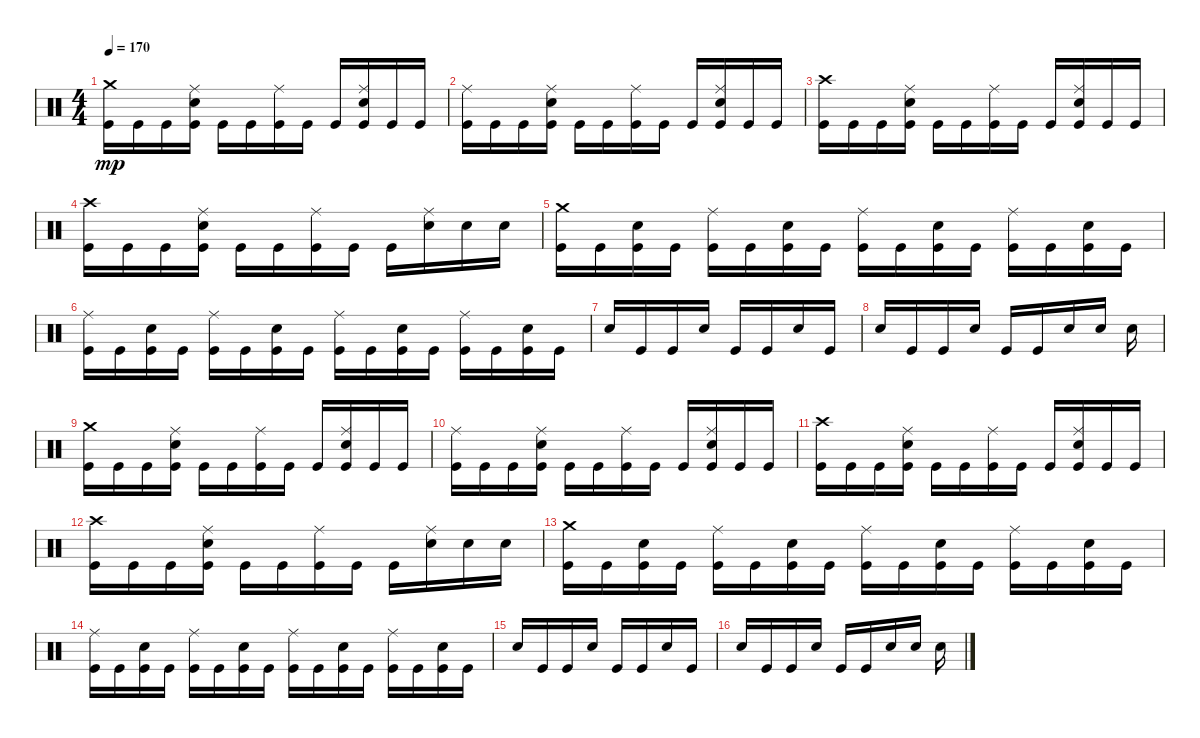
\track "" {instrument percussion}
\staff {score}
\articulation defaults
\ts (4 4)
\tempo 170
\clef neutral
\ks c
("Crash medium (hit)" "Kick (hit)").16{dy mp} "Kick (hit)".16 "Kick (hit)".16 ("Ride (middle)" "Snare (hit) 2" "Kick (hit)").16 "Kick (hit)".16 "Kick (hit)".16 ("Ride (middle)" "Kick (hit)").16 "Kick (hit)".16 "Kick (hit)".16 ("Ride (middle)" "Snare (hit) 2" "Kick (hit)").16 "Kick (hit)".16 "Kick (hit)".16 |
("Ride (middle)" "Kick (hit)").16 "Kick (hit)".16 "Kick (hit)".16 ("Ride (middle)" "Snare (hit) 2" "Kick (hit)").16 "Kick (hit)".16 "Kick (hit)".16 ("Ride (middle)" "Kick (hit)").16 "Kick (hit)".16 "Kick (hit)".16 ("Ride (middle)" "Snare (hit) 2" "Kick (hit)").16 "Kick (hit)".16 "Kick (hit)".16 |
("Crash high (hit)" "Kick (hit)").16 "Kick (hit)".16 "Kick (hit)".16 ("Ride (middle)" "Snare (hit) 2" "Kick (hit)").16 "Kick (hit)".16 "Kick (hit)".16 ("Ride (middle)" "Kick (hit)").16 "Kick (hit)".16 "Kick (hit)".16 ("Ride (middle)" "Snare (hit) 2" "Kick (hit)").16 "Kick (hit)".16 "Kick (hit)".16 |
("Crash high (hit)" "Kick (hit)").16 "Kick (hit)".16 "Kick (hit)".16 ("Snare (hit) 2" "Ride (middle)" "Kick (hit)").16 "Kick (hit)".16 "Kick (hit)".16 ("Ride (middle)" "Kick (hit)").16 "Kick (hit)".16 "Kick (hit)".16 ("Ride (middle)" "Snare (hit) 2").16 "Snare (hit) 2".16 "Snare (hit) 2".16 |
("Crash medium (hit)" "Kick (hit)").16 "Kick (hit)".16 ("Kick (hit)" "Snare (hit) 2").16 "Kick (hit)".16 ("Ride (middle)" "Kick (hit)").16 "Kick (hit)".16 ("Kick (hit)" "Snare (hit) 2").16 "Kick (hit)".16 ("Ride (middle)" "Kick (hit)").16 "Kick (hit)".16 ("Kick (hit)" "Snare (hit) 2").16 "Kick (hit)".16 ("Ride (middle)" "Kick (hit)").16 "Kick (hit)".16 ("Kick (hit)" "Snare (hit) 2").16 "Kick (hit)".16 |
("Ride (middle)" "Kick (hit)").16 "Kick (hit)".16 ("Kick (hit)" "Snare (hit) 2").16 "Kick (hit)".16 ("Ride (middle)" "Kick (hit)").16 "Kick (hit)".16 ("Kick (hit)" "Snare (hit) 2").16 "Kick (hit)".16 ("Ride (middle)" "Kick (hit)").16 "Kick (hit)".16 ("Kick (hit)" "Snare (hit) 2").16 "Kick (hit)".16 ("Ride (middle)" "Kick (hit)").16 "Kick (hit)".16 ("Snare (hit) 2" "Kick (hit)").16 "Kick (hit)".16 |
"Snare (hit) 2".16 "Kick (hit)".16 "Kick (hit)".16 "Snare (hit) 2".16 "Kick (hit)".16 "Kick (hit)".16 "Snare (hit) 2".16 "Kick (hit)".16 |
"Snare (hit) 2".16 "Kick (hit)".16 "Kick (hit)".16 "Snare (hit) 2".16 "Kick (hit)".16 "Kick (hit)".16 "Snare (hit) 2".16 "Snare (hit) 2".16 "Snare (hit) 2".16 |
("Crash medium (hit)" "Kick (hit)").16 "Kick (hit)".16 "Kick (hit)".16 ("Ride (middle)" "Snare (hit) 2" "Kick (hit)").16 "Kick (hit)".16 "Kick (hit)".16 ("Ride (middle)" "Kick (hit)").16 "Kick (hit)".16 "Kick (hit)".16 ("Ride (middle)" "Snare (hit) 2" "Kick (hit)").16 "Kick (hit)".16 "Kick (hit)".16 |
("Ride (middle)" "Kick (hit)").16 "Kick (hit)".16 "Kick (hit)".16 ("Ride (middle)" "Snare (hit) 2" "Kick (hit)").16 "Kick (hit)".16 "Kick (hit)".16 ("Ride (middle)" "Kick (hit)").16 "Kick (hit)".16 "Kick (hit)".16 ("Ride (middle)" "Snare (hit) 2" "Kick (hit)").16 "Kick (hit)".16 "Kick (hit)".16 |
("Crash high (hit)" "Kick (hit)").16 "Kick (hit)".16 "Kick (hit)".16 ("Ride (middle)" "Snare (hit) 2" "Kick (hit)").16 "Kick (hit)".16 "Kick (hit)".16 ("Ride (middle)" "Kick (hit)").16 "Kick (hit)".16 "Kick (hit)".16 ("Ride (middle)" "Snare (hit) 2" "Kick (hit)").16 "Kick (hit)".16 "Kick (hit)".16 |
("Crash high (hit)" "Kick (hit)").16 "Kick (hit)".16 "Kick (hit)".16 ("Snare (hit) 2" "Ride (middle)" "Kick (hit)").16 "Kick (hit)".16 "Kick (hit)".16 ("Ride (middle)" "Kick (hit)").16 "Kick (hit)".16 "Kick (hit)".16 ("Ride (middle)" "Snare (hit) 2").16 "Snare (hit) 2".16 "Snare (hit) 2".16 |
("Crash medium (hit)" "Kick (hit)").16 "Kick (hit)".16 ("Kick (hit)" "Snare (hit) 2").16 "Kick (hit)".16 ("Ride (middle)" "Kick (hit)").16 "Kick (hit)".16 ("Kick (hit)" "Snare (hit) 2").16 "Kick (hit)".16 ("Ride (middle)" "Kick (hit)").16 "Kick (hit)".16 ("Kick (hit)" "Snare (hit) 2").16 "Kick (hit)".16 ("Ride (middle)" "Kick (hit)").16 "Kick (hit)".16 ("Kick (hit)" "Snare (hit) 2").16 "Kick (hit)".16 |
("Ride (middle)" "Kick (hit)").16 "Kick (hit)".16 ("Kick (hit)" "Snare (hit) 2").16 "Kick (hit)".16 ("Ride (middle)" "Kick (hit)").16 "Kick (hit)".16 ("Kick (hit)" "Snare (hit) 2").16 "Kick (hit)".16 ("Ride (middle)" "Kick (hit)").16 "Kick (hit)".16 ("Kick (hit)" "Snare (hit) 2").16 "Kick (hit)".16 ("Ride (middle)" "Kick (hit)").16 "Kick (hit)".16 ("Snare (hit) 2" "Kick (hit)").16 "Kick (hit)".16 |
"Snare (hit) 2".16 "Kick (hit)".16 "Kick (hit)".16 "Snare (hit) 2".16 "Kick (hit)".16 "Kick (hit)".16 "Snare (hit) 2".16 "Kick (hit)".16 |
"Snare (hit) 2".16 "Kick (hit)".16 "Kick (hit)".16 "Snare (hit) 2".16 "Kick (hit)".16 "Kick (hit)".16 "Snare (hit) 2".16 "Snare (hit) 2".16 "Snare (hit) 2".16
